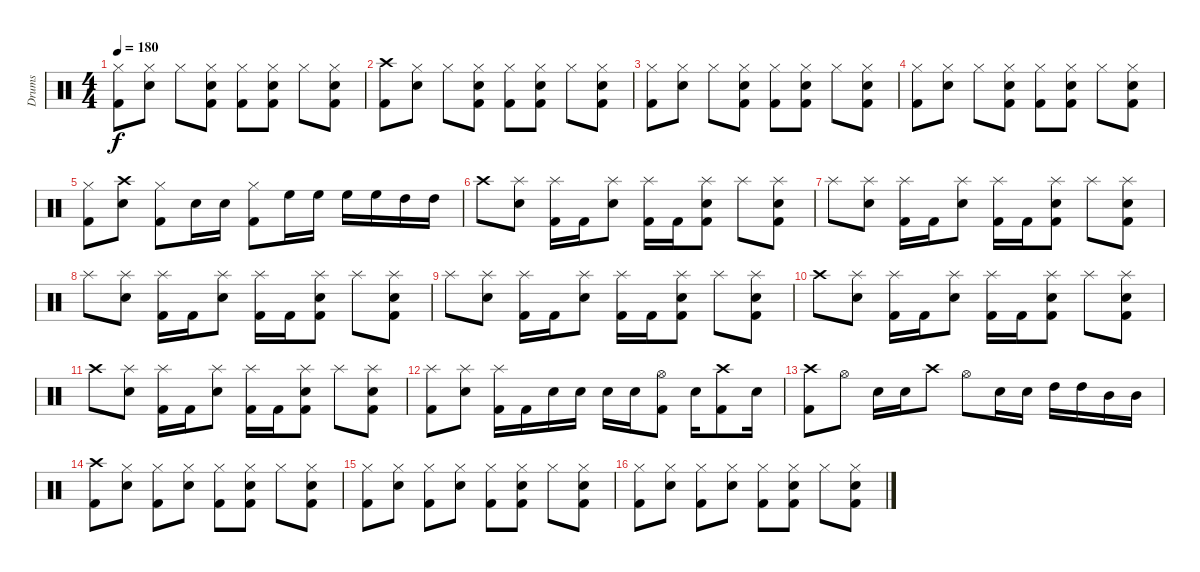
\track ("Drums" "Drums") {instrument percussion}
\staff {score}
\articulation defaults
\ts (4 4)
\tempo 180
\clef neutral
\ks c
("Hi-Hat (closed)" "Kick (hit) 2").8{dy f} ("Hi-Hat (closed)" "Snare (hit) 2").8 "Hi-Hat (closed)".8 ("Hi-Hat (closed)" "Snare (hit) 2" "Kick (hit) 2").8 ("Hi-Hat (closed)" "Kick (hit) 2").8 ("Hi-Hat (closed)" "Snare (hit) 2" "Kick (hit) 2").8 "Hi-Hat (closed)".8 ("Hi-Hat (closed)" "Snare (hit) 2" "Kick (hit) 2").8 |
("Crash high (hit)" "Kick (hit) 2").8 ("Hi-Hat (closed)" "Snare (hit) 2").8 "Hi-Hat (closed)".8 ("Hi-Hat (closed)" "Snare (hit) 2" "Kick (hit) 2").8 ("Hi-Hat (closed)" "Kick (hit) 2").8 ("Hi-Hat (closed)" "Snare (hit) 2" "Kick (hit) 2").8 "Hi-Hat (closed)".8 ("Hi-Hat (closed)" "Snare (hit) 2" "Kick (hit) 2").8 |
("Hi-Hat (closed)" "Kick (hit) 2").8 ("Hi-Hat (closed)" "Snare (hit) 2").8 "Hi-Hat (closed)".8 ("Hi-Hat (closed)" "Snare (hit) 2" "Kick (hit) 2").8 ("Hi-Hat (closed)" "Kick (hit) 2").8 ("Hi-Hat (closed)" "Snare (hit) 2" "Kick (hit) 2").8 "Hi-Hat (closed)".8 ("Hi-Hat (closed)" "Snare (hit) 2" "Kick (hit) 2").8 |
("Hi-Hat (closed)" "Kick (hit) 2").8 ("Hi-Hat (closed)" "Snare (hit) 2").8 "Hi-Hat (closed)".8 ("Hi-Hat (closed)" "Snare (hit) 2" "Kick (hit) 2").8 ("Hi-Hat (closed)" "Kick (hit) 2").8 ("Hi-Hat (closed)" "Snare (hit) 2" "Kick (hit) 2").8 "Hi-Hat (closed)".8 ("Hi-Hat (closed)" "Snare (hit) 2" "Kick (hit) 2").8 |
("Hi-Hat (closed)" "Kick (hit) 2").8 ("Crash high (hit)" "Snare (hit) 2").8 ("Hi-Hat (closed)" "Kick (hit) 2").8 "Snare (hit) 2".16 "Snare (hit) 2".16 ("Hi-Hat (closed)" "Kick (hit) 2").8 "High Floor Tom (hit)".16 "High Floor Tom (hit)".16 "High Floor Tom (hit)".16 "High Floor Tom (hit)".16 "High Tom (hit)".16 "High Tom (hit)".16 |
"Crash high (hit)".8 ("Splash (hit)" "Snare (hit) 2").8 ("Splash (hit)" "Kick (hit) 2").16 "Kick (hit) 2".16 ("Splash (hit)" "Snare (hit) 2").8 ("Splash (hit)" "Kick (hit) 2").16 "Kick (hit) 2".16 ("Splash (hit)" "Snare (hit) 2" "Kick (hit) 2").8 "Splash (hit)".8 ("Splash (hit)" "Snare (hit) 2" "Kick (hit) 2").8 |
"Splash (hit)".8 ("Splash (hit)" "Snare (hit) 2").8 ("Splash (hit)" "Kick (hit) 2").16 "Kick (hit) 2".16 ("Splash (hit)" "Snare (hit) 2").8 ("Splash (hit)" "Kick (hit) 2").16 "Kick (hit) 2".16 ("Splash (hit)" "Snare (hit) 2" "Kick (hit) 2").8 "Splash (hit)".8 ("Splash (hit)" "Snare (hit) 2" "Kick (hit) 2").8 |
"Splash (hit)".8 ("Splash (hit)" "Snare (hit) 2").8 ("Splash (hit)" "Kick (hit) 2").16 "Kick (hit) 2".16 ("Splash (hit)" "Snare (hit) 2").8 ("Splash (hit)" "Kick (hit) 2").16 "Kick (hit) 2".16 ("Splash (hit)" "Snare (hit) 2" "Kick (hit) 2").8 "Splash (hit)".8 ("Splash (hit)" "Snare (hit) 2" "Kick (hit) 2").8 |
"Splash (hit)".8 ("Splash (hit)" "Snare (hit) 2").8 ("Splash (hit)" "Kick (hit) 2").16 "Kick (hit) 2".16 ("Splash (hit)" "Snare (hit) 2").8 ("Splash (hit)" "Kick (hit) 2").16 "Kick (hit) 2".16 ("Splash (hit)" "Snare (hit) 2" "Kick (hit) 2").8 "Splash (hit)".8 ("Splash (hit)" "Snare (hit) 2" "Kick (hit) 2").8 |
"Crash high (hit)".8 ("Splash (hit)" "Snare (hit) 2").8 ("Splash (hit)" "Kick (hit) 2").16 "Kick (hit) 2".16 ("Splash (hit)" "Snare (hit) 2").8 ("Splash (hit)" "Kick (hit) 2").16 "Kick (hit) 2".16 ("Splash (hit)" "Snare (hit) 2" "Kick (hit) 2").8 "Splash (hit)".8 ("Splash (hit)" "Snare (hit) 2" "Kick (hit) 2").8 |
"Crash high (hit)".8 ("Splash (hit)" "Snare (hit) 2").8 ("Splash (hit)" "Kick (hit) 2").16 "Kick (hit) 2".16 ("Splash (hit)" "Snare (hit) 2").8 ("Splash (hit)" "Kick (hit) 2").16 "Kick (hit) 2".16 ("Splash (hit)" "Snare (hit) 2" "Kick (hit) 2").8 "Splash (hit)".8 ("Splash (hit)" "Snare (hit) 2" "Kick (hit) 2").8 |
("Splash (hit)" "Kick (hit) 2").8 ("Splash (hit)" "Snare (hit) 2").8 ("Splash (hit)" "Kick (hit) 2").16 "Kick (hit) 2".16 "Snare (hit) 2".16 "Snare (hit) 2".16 "Snare (hit) 2".16 "Snare (hit) 2".16 ("Hi-Hat (open)" "Kick (hit) 2").8 "Snare (hit) 2".16 ("Crash high (hit)" "Kick (hit) 2").8 "Snare (hit) 2".16 |
("Crash high (hit)" "Kick (hit) 2").8 "Hi-Hat (open)".8 "Snare (hit) 2".16 "Snare (hit) 2".16 "Crash high (hit)".8 "Hi-Hat (open)".8 "Snare (hit) 2".16 "Snare (hit) 2".16 "High Tom (hit)".16 "High Tom (hit)".16 "Mid Tom (hit)".16 "Mid Tom (hit)".16 |
("Crash high (hit)" "Kick (hit) 2").8 ("Hi-Hat (closed)" "Snare (hit) 2").8 ("Hi-Hat (closed)" "Kick (hit) 2").8 ("Hi-Hat (closed)" "Snare (hit) 2").8 ("Hi-Hat (closed)" "Kick (hit) 2").8 ("Hi-Hat (closed)" "Snare (hit) 2" "Kick (hit) 2").8 "Hi-Hat (closed)".8 ("Hi-Hat (closed)" "Snare (hit) 2" "Kick (hit) 2").8 |
("Hi-Hat (closed)" "Kick (hit) 2").8 ("Hi-Hat (closed)" "Snare (hit) 2").8 ("Hi-Hat (closed)" "Kick (hit) 2").8 ("Hi-Hat (closed)" "Snare (hit) 2").8 ("Hi-Hat (closed)" "Kick (hit) 2").8 ("Hi-Hat (closed)" "Snare (hit) 2" "Kick (hit) 2").8 "Hi-Hat (closed)".8 ("Hi-Hat (closed)" "Snare (hit) 2" "Kick (hit) 2").8 |
("Hi-Hat (closed)" "Kick (hit) 2").8 ("Hi-Hat (closed)" "Snare (hit) 2").8 ("Hi-Hat (closed)" "Kick (hit) 2").8 ("Hi-Hat (closed)" "Snare (hit) 2").8 ("Hi-Hat (closed)" "Kick (hit) 2").8 ("Hi-Hat (closed)" "Snare (hit) 2" "Kick (hit) 2").8 "Hi-Hat (closed)".8 ("Hi-Hat (closed)" "Snare (hit) 2" "Kick (hit) 2").8
